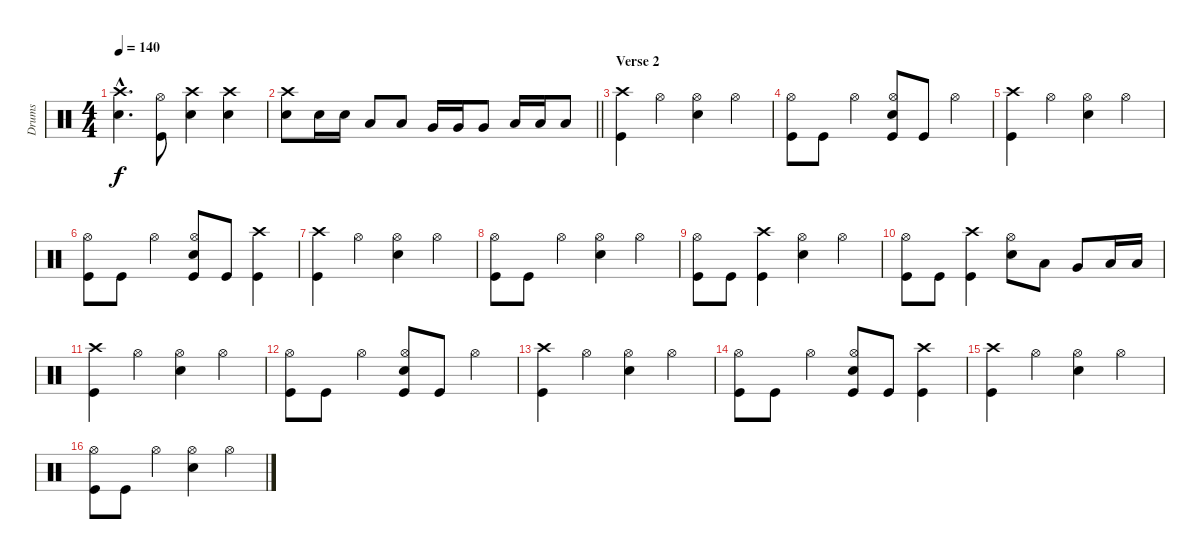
\track ("Drums" "Drums") {instrument percussion}
\staff {score}
\articulation defaults
\ts (4 4)
\tempo 140
\clef neutral
\ks c
("Crash high (hit)"{hac} "Snare (hit) 2"{hac}).4{d dy f} ("Hi-Hat (open)" "Kick (hit)").8 ("Crash high (hit)" "Snare (hit) 2").4 ("Crash high (hit)" "Snare (hit) 2").4 |
\barLineRight lightlight
("Crash high (hit)" "Snare (hit) 2").8 "Snare (hit) 2".16 "Snare (hit) 2".16 "Low Tom (hit)".8 "Low Tom (hit)".8 "Very Low Tom (hit)".16 "Very Low Tom (hit)".16 "Very Low Tom (hit)".8 "Low Floor Tom (hit)".16 "Low Floor Tom (hit)".16 "Low Floor Tom (hit)".8 |
\section ("" "Verse 2")
("Crash high (hit)" "Kick (hit)").4 "Hi-Hat (open)".4 ("Hi-Hat (open)" "Snare (hit) 2").4 "Hi-Hat (open)".4 |
("Hi-Hat (open)" "Kick (hit)").8 "Kick (hit)".8 "Hi-Hat (open)".4 ("Snare (hit) 2" "Kick (hit)" "Hi-Hat (open)").8 "Kick (hit)".8 "Hi-Hat (open)".4 |
("Crash high (hit)" "Kick (hit)").4 "Hi-Hat (open)".4 ("Hi-Hat (open)" "Snare (hit) 2").4 "Hi-Hat (open)".4 |
("Hi-Hat (open)" "Kick (hit)").8 "Kick (hit)".8 "Hi-Hat (open)".4 ("Snare (hit) 2" "Kick (hit)" "Hi-Hat (open)").8 "Kick (hit)".8 ("Crash high (hit)" "Kick (hit)").4 |
("Crash high (hit)" "Kick (hit)").4 "Hi-Hat (open)".4 ("Hi-Hat (open)" "Snare (hit) 2").4 "Hi-Hat (open)".4 |
("Hi-Hat (open)" "Kick (hit)").8 "Kick (hit)".8 "Hi-Hat (open)".4 ("Snare (hit) 2" "Hi-Hat (open)").4 "Hi-Hat (open)".4 |
("Kick (hit)" "Hi-Hat (open)").8 "Kick (hit)".8 ("Kick (hit)" "Crash high (hit)").4 ("Snare (hit) 2" "Hi-Hat (open)").4 "Hi-Hat (open)".4 |
("Kick (hit)" "Hi-Hat (open)").8 "Kick (hit)".8 ("Kick (hit)" "Crash high (hit)").4 ("Snare (hit) 2" "Hi-Hat (open)").8 "Low Tom (hit)".8 "Very Low Tom (hit)".8 "Low Floor Tom (hit)".16 "Low Floor Tom (hit)".16 |
("Crash high (hit)" "Kick (hit)").4 "Hi-Hat (open)".4 ("Hi-Hat (open)" "Snare (hit) 2").4 "Hi-Hat (open)".4 |
("Hi-Hat (open)" "Kick (hit)").8 "Kick (hit)".8 "Hi-Hat (open)".4 ("Snare (hit) 2" "Kick (hit)" "Hi-Hat (open)").8 "Kick (hit)".8 "Hi-Hat (open)".4 |
("Crash high (hit)" "Kick (hit)").4 "Hi-Hat (open)".4 ("Hi-Hat (open)" "Snare (hit) 2").4 "Hi-Hat (open)".4 |
("Hi-Hat (open)" "Kick (hit)").8 "Kick (hit)".8 "Hi-Hat (open)".4 ("Snare (hit) 2" "Kick (hit)" "Hi-Hat (open)").8 "Kick (hit)".8 ("Crash high (hit)" "Kick (hit)").4 |
("Crash high (hit)" "Kick (hit)").4 "Hi-Hat (open)".4 ("Hi-Hat (open)" "Snare (hit) 2").4 "Hi-Hat (open)".4 |
("Hi-Hat (open)" "Kick (hit)").8 "Kick (hit)".8 "Hi-Hat (open)".4 ("Snare (hit) 2" "Hi-Hat (open)").4 "Hi-Hat (open)".4
